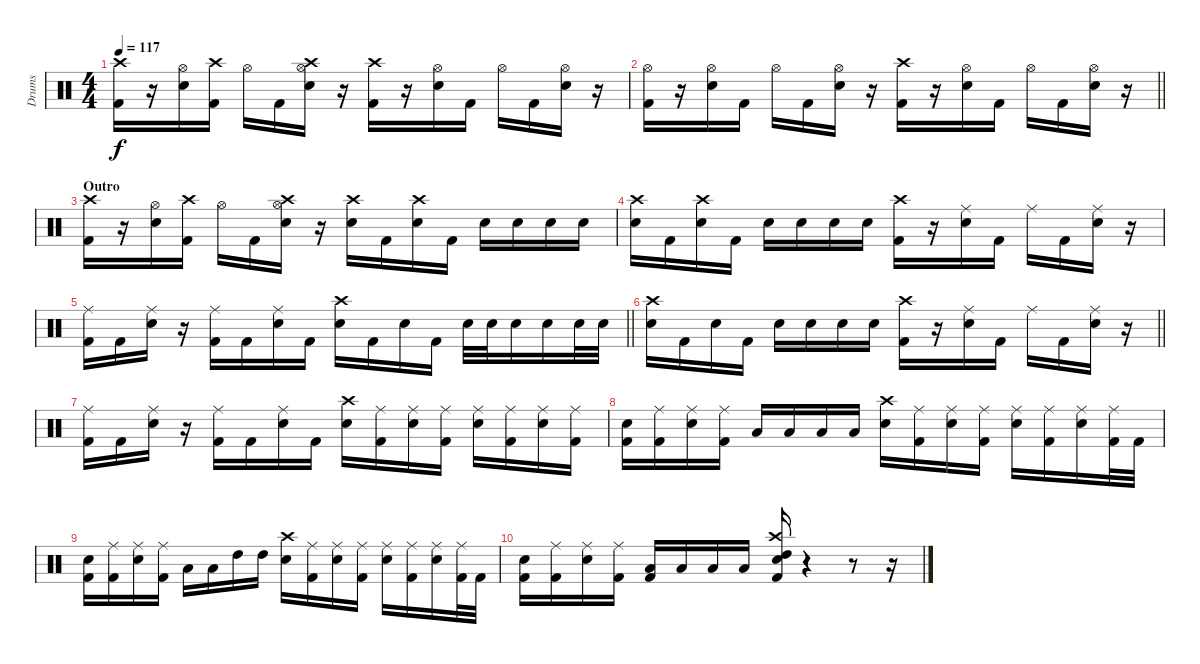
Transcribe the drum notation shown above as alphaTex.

\track ("Drums" "Drums") {instrument percussion}
\staff {score}
\articulation defaults
\ts (4 4)
\tempo 117
\clef neutral
\ks c
("Kick (hit) 2" "Crash high (hit)").16{dy f} r.16 ("Snare (hit) 2" "Hi-Hat (open)").16 ("Kick (hit) 2" "Crash high (hit)").16 "Hi-Hat (open)".16 "Kick (hit) 2".16 ("Snare (hit) 2" "Hi-Hat (open)" "Crash high (hit)").16 r.16 ("Kick (hit) 2" "Crash high (hit)").16 r.16 ("Hi-Hat (open)" "Snare (hit) 2").16 "Kick (hit) 2".16 "Hi-Hat (open)".16 "Kick (hit) 2".16 ("Hi-Hat (open)" "Snare (hit) 2").16 r.16 |
\barLineRight lightlight
("Hi-Hat (open)" "Kick (hit) 2").16 r.16 ("Hi-Hat (open)" "Snare (hit) 2").16 "Kick (hit) 2".16 "Hi-Hat (open)".16 "Kick (hit) 2".16 ("Hi-Hat (open)" "Snare (hit) 2").16 r.16 ("Kick (hit) 2" "Crash high (hit)").16 r.16 ("Hi-Hat (open)" "Snare (hit) 2").16 "Kick (hit) 2".16 "Hi-Hat (open)".16 "Kick (hit) 2".16 ("Hi-Hat (open)" "Snare (hit) 2").16 r.16 |
\section ("" "Outro")
("Kick (hit) 2" "Crash high (hit)").16 r.16 ("Hi-Hat (open)" "Snare (hit) 2").16 ("Kick (hit) 2" "Crash high (hit)").16 "Hi-Hat (open)".16 "Kick (hit) 2".16 ("Hi-Hat (open)" "Snare (hit) 2" "Crash high (hit)").16 r.16 ("Snare (hit) 2" "Crash high (hit)").16 "Kick (hit) 2".16 ("Snare (hit) 2" "Crash high (hit)").16 "Kick (hit) 2".16 "Snare (hit) 2".16 "Snare (hit) 2".16 "Snare (hit) 2".16 "Snare (hit) 2".16 |
("Snare (hit) 2" "Crash high (hit)").16 "Kick (hit) 2".16 ("Snare (hit) 2" "Crash high (hit)").16 "Kick (hit) 2".16 "Snare (hit) 2".16 "Snare (hit) 2".16 "Snare (hit) 2".16 "Snare (hit) 2".16 ("Kick (hit) 2" "Crash high (hit)").16 r.16 ("Snare (hit) 2" "Ride (middle)").16 "Kick (hit) 2".16 "Ride (middle)".16 "Kick (hit) 2".16 ("Snare (hit) 2" "Ride (middle)").16 r.16 |
\barLineRight lightlight
("Kick (hit) 2" "Ride (middle)").16 "Kick (hit) 2".16 ("Snare (hit) 2" "Ride (middle)").16 r.16 ("Kick (hit) 2" "Ride (middle)").16 "Kick (hit) 2".16 ("Snare (hit) 2" "Ride (middle)").16 "Kick (hit) 2".16 ("Snare (hit) 2" "Crash high (hit)").16 "Kick (hit) 2".16 "Snare (hit) 2".16 "Kick (hit) 2".16 "Snare (hit) 2".32 "Snare (hit) 2".32 "Snare (hit) 2".16 "Snare (hit) 2".16 "Snare (hit) 2".32 "Snare (hit) 2".32 |
\barLineRight lightlight
("Snare (hit) 2" "Crash high (hit)").16 "Kick (hit) 2".16 "Snare (hit) 2".16 "Kick (hit) 2".16 "Snare (hit) 2".16 "Snare (hit) 2".16 "Snare (hit) 2".16 "Snare (hit) 2".16 ("Kick (hit) 2" "Crash high (hit)").16 r.16 ("Snare (hit) 2" "Ride (middle)").16 "Kick (hit) 2".16 "Ride (middle)".16 "Kick (hit) 2".16 ("Snare (hit) 2" "Ride (middle)").16 r.16 |
("Kick (hit) 2" "Ride (middle)").16 "Kick (hit) 2".16 ("Snare (hit) 2" "Ride (middle)").16 r.16 ("Kick (hit) 2" "Ride (middle)").16 "Kick (hit) 2".16 ("Snare (hit) 2" "Ride (middle)").16 "Kick (hit) 2".16 ("Snare (hit) 2" "Crash high (hit)").16 ("Kick (hit) 2" "Ride (middle)").16 ("Snare (hit) 2" "Ride (middle)").16 ("Kick (hit) 2" "Ride (middle)").16 ("Snare (hit) 2" "Ride (middle)").16 ("Kick (hit) 2" "Ride (middle)").16 ("Snare (hit) 2" "Ride (middle)").16 ("Kick (hit) 2" "Ride (middle)").16 |
("Kick (hit) 2" "Snare (hit) 2").16 ("Kick (hit) 2" "Ride (middle)").16 ("Snare (hit) 2" "Ride (middle)").16 ("Kick (hit) 2" "Ride (middle)").16 "Low Floor Tom (hit)".16 "Low Floor Tom (hit)".16 "Low Tom (hit)".16 "Low Tom (hit)".16 ("Snare (hit) 2" "Crash high (hit)").16 ("Kick (hit) 2" "Ride (middle)").16 ("Snare (hit) 2" "Ride (middle)").16 ("Kick (hit) 2" "Ride (middle)").16 ("Snare (hit) 2" "Ride (middle)").16 ("Kick (hit) 2" "Ride (middle)").16 ("Snare (hit) 2" "Ride (middle)").16 ("Kick (hit) 2" "Ride (middle)").32 "Kick (hit) 2".32 |
("Kick (hit) 2" "Snare (hit) 2").16 ("Kick (hit) 2" "Ride (middle)").16 ("Snare (hit) 2" "Ride (middle)").16 ("Kick (hit) 2" "Ride (middle)").16 "Low Tom (hit)".16 "Low Tom (hit)".16 "High Tom (hit)".16 "High Tom (hit)".16 ("Snare (hit) 2" "Crash high (hit)").16 ("Kick (hit) 2" "Ride (middle)").16 ("Snare (hit) 2" "Ride (middle)").16 ("Kick (hit) 2" "Ride (middle)").16 ("Snare (hit) 2" "Ride (middle)").16 ("Kick (hit) 2" "Ride (middle)").16 ("Snare (hit) 2" "Ride (middle)").16 ("Kick (hit) 2" "Ride (middle)").32 "Kick (hit) 2".32 |
("Kick (hit) 2" "Snare (hit) 2").16 ("Kick (hit) 2" "Ride (middle)").16 ("Snare (hit) 2" "Ride (middle)").16 ("Kick (hit) 2" "Ride (middle)").16 ("Kick (hit) 2" "Low Floor Tom (hit)").16 "Low Floor Tom (hit)".16 "Low Tom (hit)".16 "Low Tom (hit)".16 ("Kick (hit) 2" "Snare (hit) 2" "High Tom (hit)" "Crash high (hit)").16 r.4 r.8 r.16
